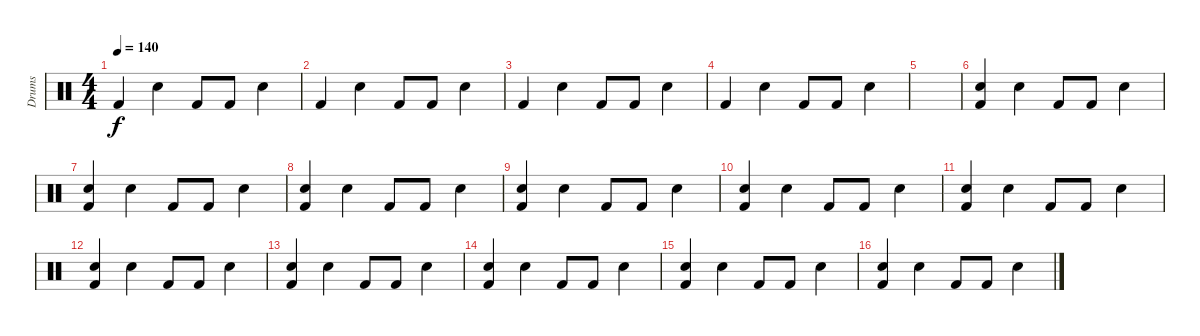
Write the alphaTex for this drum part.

\track ("Drums" "Drums") {instrument percussion}
\staff {score}
\articulation defaults
\ts (4 4)
\tempo 140
\clef neutral
\ks c "Kick (hit) 2".4{dy f} "Snare (hit) 2".4 "Kick (hit) 2".8 "Kick (hit) 2".8 "Snare (hit) 2".4
|
"Kick (hit) 2".4 "Snare (hit) 2".4 "Kick (hit) 2".8 "Kick (hit) 2".8 "Snare (hit) 2".4 |
"Kick (hit) 2".4 "Snare (hit) 2".4 "Kick (hit) 2".8 "Kick (hit) 2".8 "Snare (hit) 2".4 |
"Kick (hit) 2".4 "Snare (hit) 2".4 "Kick (hit) 2".8 "Kick (hit) 2".8 "Snare (hit) 2".4 |
|
("Kick (hit) 2" "Snare (hit) 2").4 "Snare (hit) 2".4 "Kick (hit) 2".8 "Kick (hit) 2".8 "Snare (hit) 2".4 |
("Kick (hit) 2" "Snare (hit) 2").4 "Snare (hit) 2".4 "Kick (hit) 2".8 "Kick (hit) 2".8 "Snare (hit) 2".4 |
("Kick (hit) 2" "Snare (hit) 2").4 "Snare (hit) 2".4 "Kick (hit) 2".8 "Kick (hit) 2".8 "Snare (hit) 2".4 |
("Kick (hit) 2" "Snare (hit) 2").4 "Snare (hit) 2".4 "Kick (hit) 2".8 "Kick (hit) 2".8 "Snare (hit) 2".4 |
("Kick (hit) 2" "Snare (hit) 2").4 "Snare (hit) 2".4 "Kick (hit) 2".8 "Kick (hit) 2".8 "Snare (hit) 2".4 |
("Kick (hit) 2" "Snare (hit) 2").4 "Snare (hit) 2".4 "Kick (hit) 2".8 "Kick (hit) 2".8 "Snare (hit) 2".4 |
("Kick (hit) 2" "Snare (hit) 2").4 "Snare (hit) 2".4 "Kick (hit) 2".8 "Kick (hit) 2".8 "Snare (hit) 2".4 |
("Kick (hit) 2" "Snare (hit) 2").4 "Snare (hit) 2".4 "Kick (hit) 2".8 "Kick (hit) 2".8 "Snare (hit) 2".4 |
("Kick (hit) 2" "Snare (hit) 2").4 "Snare (hit) 2".4 "Kick (hit) 2".8 "Kick (hit) 2".8 "Snare (hit) 2".4 |
("Kick (hit) 2" "Snare (hit) 2").4 "Snare (hit) 2".4 "Kick (hit) 2".8 "Kick (hit) 2".8 "Snare (hit) 2".4 |
("Kick (hit) 2" "Snare (hit) 2").4 "Snare (hit) 2".4 "Kick (hit) 2".8 "Kick (hit) 2".8 "Snare (hit) 2".4
